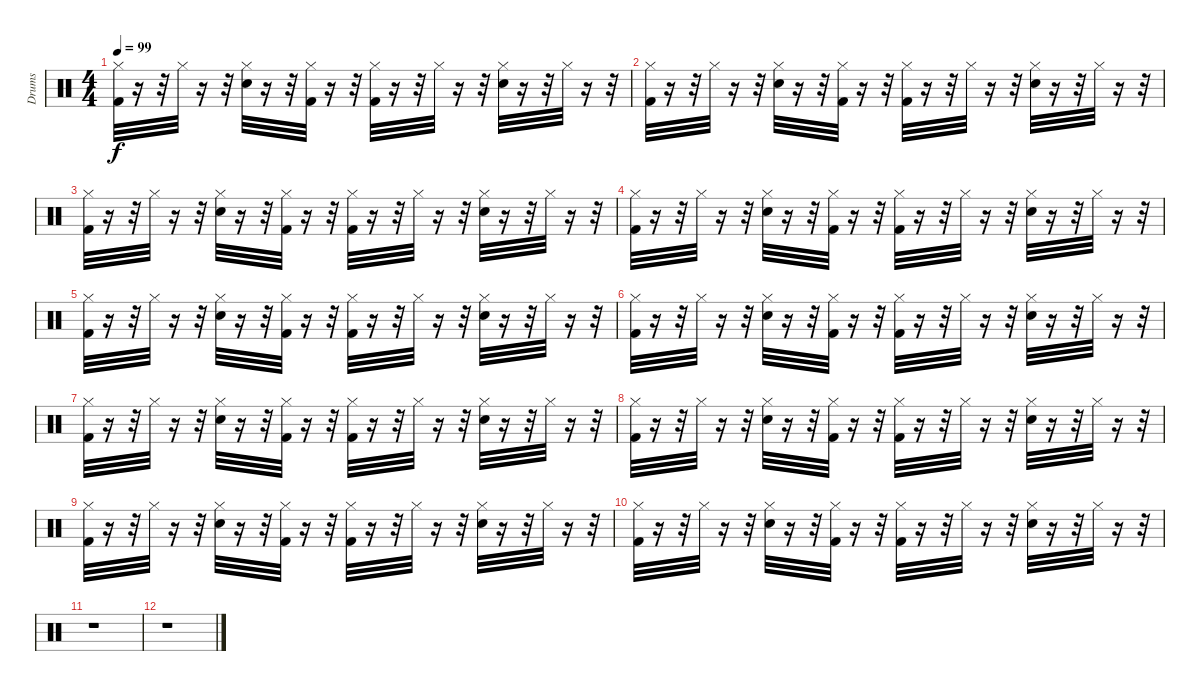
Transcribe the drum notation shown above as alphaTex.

\track ("Drums" "Drums") {instrument percussion}
\staff {score}
\articulation defaults
\ts (4 4)
\tempo 99
\clef neutral
\ks c
("Hi-Hat (closed)" "Kick (hit) 2").32{dy f} r.16 r.32 "Hi-Hat (closed)".32 r.16 r.32 ("Hi-Hat (closed)" "Snare (hit) 2").32 r.16 r.32 ("Hi-Hat (closed)" "Kick (hit) 2").32 r.16 r.32 ("Hi-Hat (closed)" "Kick (hit) 2").32 r.16 r.32 "Hi-Hat (closed)".32 r.16 r.32 ("Hi-Hat (closed)" "Snare (hit) 2").32 r.16 r.32 "Hi-Hat (closed)".32 r.16 r.32 |
("Hi-Hat (closed)" "Kick (hit) 2").32 r.16 r.32 "Hi-Hat (closed)".32 r.16 r.32 ("Hi-Hat (closed)" "Snare (hit) 2").32 r.16 r.32 ("Hi-Hat (closed)" "Kick (hit) 2").32 r.16 r.32 ("Hi-Hat (closed)" "Kick (hit) 2").32 r.16 r.32 "Hi-Hat (closed)".32 r.16 r.32 ("Hi-Hat (closed)" "Snare (hit) 2").32 r.16 r.32 "Hi-Hat (closed)".32 r.16 r.32 |
("Hi-Hat (closed)" "Kick (hit) 2").32 r.16 r.32 "Hi-Hat (closed)".32 r.16 r.32 ("Hi-Hat (closed)" "Snare (hit) 2").32 r.16 r.32 ("Hi-Hat (closed)" "Kick (hit) 2").32 r.16 r.32 ("Hi-Hat (closed)" "Kick (hit) 2").32 r.16 r.32 "Hi-Hat (closed)".32 r.16 r.32 ("Hi-Hat (closed)" "Snare (hit) 2").32 r.16 r.32 "Hi-Hat (closed)".32 r.16 r.32 |
("Hi-Hat (closed)" "Kick (hit) 2").32 r.16 r.32 "Hi-Hat (closed)".32 r.16 r.32 ("Hi-Hat (closed)" "Snare (hit) 2").32 r.16 r.32 ("Hi-Hat (closed)" "Kick (hit) 2").32 r.16 r.32 ("Hi-Hat (closed)" "Kick (hit) 2").32 r.16 r.32 "Hi-Hat (closed)".32 r.16 r.32 ("Hi-Hat (closed)" "Snare (hit) 2").32 r.16 r.32 "Hi-Hat (closed)".32 r.16 r.32 |
("Hi-Hat (closed)" "Kick (hit) 2").32 r.16 r.32 "Hi-Hat (closed)".32 r.16 r.32 ("Hi-Hat (closed)" "Snare (hit) 2").32 r.16 r.32 ("Hi-Hat (closed)" "Kick (hit) 2").32 r.16 r.32 ("Hi-Hat (closed)" "Kick (hit) 2").32 r.16 r.32 "Hi-Hat (closed)".32 r.16 r.32 ("Hi-Hat (closed)" "Snare (hit) 2").32 r.16 r.32 "Hi-Hat (closed)".32 r.16 r.32 |
("Hi-Hat (closed)" "Kick (hit) 2").32 r.16 r.32 "Hi-Hat (closed)".32 r.16 r.32 ("Hi-Hat (closed)" "Snare (hit) 2").32 r.16 r.32 ("Hi-Hat (closed)" "Kick (hit) 2").32 r.16 r.32 ("Hi-Hat (closed)" "Kick (hit) 2").32 r.16 r.32 "Hi-Hat (closed)".32 r.16 r.32 ("Hi-Hat (closed)" "Snare (hit) 2").32 r.16 r.32 "Hi-Hat (closed)".32 r.16 r.32 |
("Hi-Hat (closed)" "Kick (hit) 2").32 r.16 r.32 "Hi-Hat (closed)".32 r.16 r.32 ("Hi-Hat (closed)" "Snare (hit) 2").32 r.16 r.32 ("Hi-Hat (closed)" "Kick (hit) 2").32 r.16 r.32 ("Hi-Hat (closed)" "Kick (hit) 2").32 r.16 r.32 "Hi-Hat (closed)".32 r.16 r.32 ("Hi-Hat (closed)" "Snare (hit) 2").32 r.16 r.32 "Hi-Hat (closed)".32 r.16 r.32 |
("Hi-Hat (closed)" "Kick (hit) 2").32 r.16 r.32 "Hi-Hat (closed)".32 r.16 r.32 ("Hi-Hat (closed)" "Snare (hit) 2").32 r.16 r.32 ("Hi-Hat (closed)" "Kick (hit) 2").32 r.16 r.32 ("Hi-Hat (closed)" "Kick (hit) 2").32 r.16 r.32 "Hi-Hat (closed)".32 r.16 r.32 ("Hi-Hat (closed)" "Snare (hit) 2").32 r.16 r.32 "Hi-Hat (closed)".32 r.16 r.32 |
("Hi-Hat (closed)" "Kick (hit) 2").32 r.16 r.32 "Hi-Hat (closed)".32 r.16 r.32 ("Hi-Hat (closed)" "Snare (hit) 2").32 r.16 r.32 ("Hi-Hat (closed)" "Kick (hit) 2").32 r.16 r.32 ("Hi-Hat (closed)" "Kick (hit) 2").32 r.16 r.32 "Hi-Hat (closed)".32 r.16 r.32 ("Hi-Hat (closed)" "Snare (hit) 2").32 r.16 r.32 "Hi-Hat (closed)".32 r.16 r.32 |
("Hi-Hat (closed)" "Kick (hit) 2").32 r.16 r.32 "Hi-Hat (closed)".32 r.16 r.32 ("Hi-Hat (closed)" "Snare (hit) 2").32 r.16 r.32 ("Hi-Hat (closed)" "Kick (hit) 2").32 r.16 r.32 ("Hi-Hat (closed)" "Kick (hit) 2").32 r.16 r.32 "Hi-Hat (closed)".32 r.16 r.32 ("Hi-Hat (closed)" "Snare (hit) 2").32 r.16 r.32 "Hi-Hat (closed)".32 r.16 r.32 |
r.1 |
r.1
